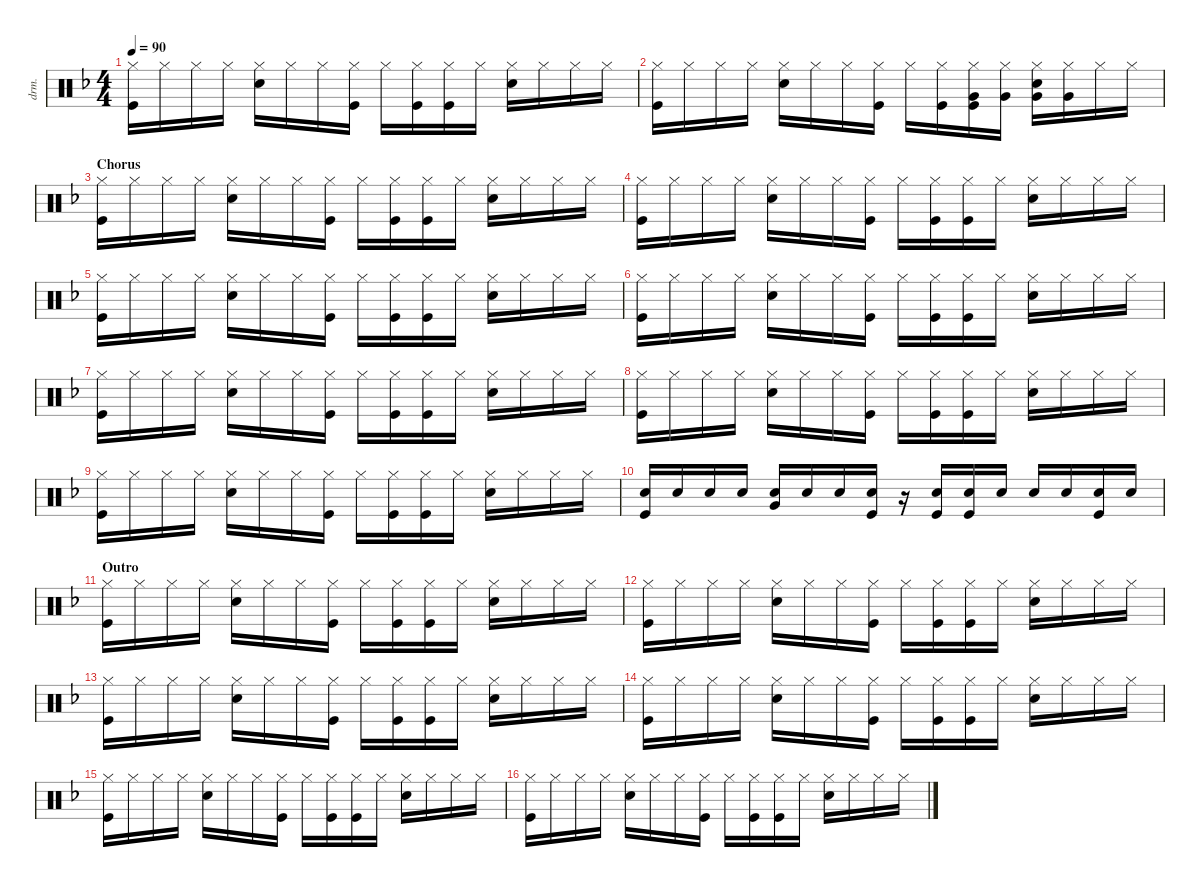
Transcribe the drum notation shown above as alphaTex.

\defaultSystemsLayout 4
\hideDynamics
\bracketExtendMode nobrackets
\track ("Drumkit" "drm.") {instrument percussion}
\staff {score}
\articulation defaults
\ts (4 4)
\tempo 90
\clef neutral
\ks f
("Hi-Hat (closed)"{acc forcenatural} "Kick (hit)"{acc forcenatural}).16{dy mf} "Hi-Hat (closed)"{acc forcenatural}.16 "Hi-Hat (closed)"{acc forcenatural}.16 "Hi-Hat (closed)"{acc forcenatural}.16 ("Hi-Hat (closed)"{acc forcenatural} "Snare (hit) 2"{acc forcenatural}).16 "Hi-Hat (closed)"{acc forcenatural}.16 "Hi-Hat (closed)"{acc forcenatural}.16 ("Hi-Hat (closed)"{acc forcenatural} "Kick (hit)"{acc forcenatural}).16 "Hi-Hat (closed)"{acc forcenatural}.16 ("Hi-Hat (closed)"{acc forcenatural} "Kick (hit)"{acc forcenatural}).16 ("Hi-Hat (closed)"{acc forcenatural} "Kick (hit)"{acc forcenatural}).16 "Hi-Hat (closed)"{acc forcenatural}.16 ("Hi-Hat (closed)"{acc forcenatural} "Snare (hit) 2"{acc forcenatural}).16 "Hi-Hat (closed)"{acc forcenatural}.16 "Hi-Hat (closed)"{acc forcenatural}.16 "Hi-Hat (closed)"{acc forcenatural}.16 |
("Hi-Hat (closed)"{acc forcenatural} "Kick (hit)"{acc forcenatural}).16 "Hi-Hat (closed)"{acc forcenatural}.16 "Hi-Hat (closed)"{acc forcenatural}.16 "Hi-Hat (closed)"{acc forcenatural}.16 ("Hi-Hat (closed)"{acc forcenatural} "Snare (hit) 2"{acc forcenatural}).16 "Hi-Hat (closed)"{acc forcenatural}.16 "Hi-Hat (closed)"{acc forcenatural}.16 ("Hi-Hat (closed)"{acc forcenatural} "Kick (hit)"{acc forcenatural}).16 "Hi-Hat (closed)"{acc forcenatural}.16 ("Hi-Hat (closed)"{acc forcenatural} "Kick (hit)"{acc forcenatural}).16 ("Hi-Hat (closed)"{acc forcenatural} "Kick (hit)"{acc forcenatural} "Very Low Tom (hit)"{acc forcenatural}).16 ("Hi-Hat (closed)"{acc forcenatural} "Very Low Tom (hit)"{acc forcenatural}).16 ("Hi-Hat (closed)"{acc forcenatural} "Snare (hit) 2"{acc forcenatural} "Very Low Tom (hit)"{acc forcenatural}).16 ("Hi-Hat (closed)"{acc forcenatural} "Very Low Tom (hit)"{acc forcenatural}).16 "Hi-Hat (closed)"{acc forcenatural}.16 "Hi-Hat (closed)"{acc forcenatural}.16 |
\section ("" "Chorus")
("Hi-Hat (closed)"{acc forcenatural} "Kick (hit)"{acc forcenatural}).16 "Hi-Hat (closed)"{acc forcenatural}.16 "Hi-Hat (closed)"{acc forcenatural}.16 "Hi-Hat (closed)"{acc forcenatural}.16 ("Hi-Hat (closed)"{acc forcenatural} "Snare (hit) 2"{acc forcenatural}).16 "Hi-Hat (closed)"{acc forcenatural}.16 "Hi-Hat (closed)"{acc forcenatural}.16 ("Hi-Hat (closed)"{acc forcenatural} "Kick (hit)"{acc forcenatural}).16 "Hi-Hat (closed)"{acc forcenatural}.16 ("Hi-Hat (closed)"{acc forcenatural} "Kick (hit)"{acc forcenatural}).16 ("Hi-Hat (closed)"{acc forcenatural} "Kick (hit)"{acc forcenatural}).16 "Hi-Hat (closed)"{acc forcenatural}.16 ("Hi-Hat (closed)"{acc forcenatural} "Snare (hit) 2"{acc forcenatural}).16 "Hi-Hat (closed)"{acc forcenatural}.16 "Hi-Hat (closed)"{acc forcenatural}.16 "Hi-Hat (closed)"{acc forcenatural}.16 |
("Hi-Hat (closed)"{acc forcenatural} "Kick (hit)"{acc forcenatural}).16 "Hi-Hat (closed)"{acc forcenatural}.16 "Hi-Hat (closed)"{acc forcenatural}.16 "Hi-Hat (closed)"{acc forcenatural}.16 ("Hi-Hat (closed)"{acc forcenatural} "Snare (hit) 2"{acc forcenatural}).16 "Hi-Hat (closed)"{acc forcenatural}.16 "Hi-Hat (closed)"{acc forcenatural}.16 ("Hi-Hat (closed)"{acc forcenatural} "Kick (hit)"{acc forcenatural}).16 "Hi-Hat (closed)"{acc forcenatural}.16 ("Hi-Hat (closed)"{acc forcenatural} "Kick (hit)"{acc forcenatural}).16 ("Hi-Hat (closed)"{acc forcenatural} "Kick (hit)"{acc forcenatural}).16 "Hi-Hat (closed)"{acc forcenatural}.16 ("Hi-Hat (closed)"{acc forcenatural} "Snare (hit) 2"{acc forcenatural}).16 "Hi-Hat (closed)"{acc forcenatural}.16 "Hi-Hat (closed)"{acc forcenatural}.16 "Hi-Hat (closed)"{acc forcenatural}.16 |
("Hi-Hat (closed)"{acc forcenatural} "Kick (hit)"{acc forcenatural}).16 "Hi-Hat (closed)"{acc forcenatural}.16 "Hi-Hat (closed)"{acc forcenatural}.16 "Hi-Hat (closed)"{acc forcenatural}.16 ("Hi-Hat (closed)"{acc forcenatural} "Snare (hit) 2"{acc forcenatural}).16 "Hi-Hat (closed)"{acc forcenatural}.16 "Hi-Hat (closed)"{acc forcenatural}.16 ("Hi-Hat (closed)"{acc forcenatural} "Kick (hit)"{acc forcenatural}).16 "Hi-Hat (closed)"{acc forcenatural}.16 ("Hi-Hat (closed)"{acc forcenatural} "Kick (hit)"{acc forcenatural}).16 ("Hi-Hat (closed)"{acc forcenatural} "Kick (hit)"{acc forcenatural}).16 "Hi-Hat (closed)"{acc forcenatural}.16 ("Hi-Hat (closed)"{acc forcenatural} "Snare (hit) 2"{acc forcenatural}).16 "Hi-Hat (closed)"{acc forcenatural}.16 "Hi-Hat (closed)"{acc forcenatural}.16 "Hi-Hat (closed)"{acc forcenatural}.16 |
("Hi-Hat (closed)"{acc forcenatural} "Kick (hit)"{acc forcenatural}).16 "Hi-Hat (closed)"{acc forcenatural}.16 "Hi-Hat (closed)"{acc forcenatural}.16 "Hi-Hat (closed)"{acc forcenatural}.16 ("Hi-Hat (closed)"{acc forcenatural} "Snare (hit) 2"{acc forcenatural}).16 "Hi-Hat (closed)"{acc forcenatural}.16 "Hi-Hat (closed)"{acc forcenatural}.16 ("Hi-Hat (closed)"{acc forcenatural} "Kick (hit)"{acc forcenatural}).16 "Hi-Hat (closed)"{acc forcenatural}.16 ("Hi-Hat (closed)"{acc forcenatural} "Kick (hit)"{acc forcenatural}).16 ("Hi-Hat (closed)"{acc forcenatural} "Kick (hit)"{acc forcenatural}).16 "Hi-Hat (closed)"{acc forcenatural}.16 ("Hi-Hat (closed)"{acc forcenatural} "Snare (hit) 2"{acc forcenatural}).16 "Hi-Hat (closed)"{acc forcenatural}.16 "Hi-Hat (closed)"{acc forcenatural}.16 "Hi-Hat (closed)"{acc forcenatural}.16 |
("Hi-Hat (closed)"{acc forcenatural} "Kick (hit)"{acc forcenatural}).16 "Hi-Hat (closed)"{acc forcenatural}.16 "Hi-Hat (closed)"{acc forcenatural}.16 "Hi-Hat (closed)"{acc forcenatural}.16 ("Hi-Hat (closed)"{acc forcenatural} "Snare (hit) 2"{acc forcenatural}).16 "Hi-Hat (closed)"{acc forcenatural}.16 "Hi-Hat (closed)"{acc forcenatural}.16 ("Hi-Hat (closed)"{acc forcenatural} "Kick (hit)"{acc forcenatural}).16 "Hi-Hat (closed)"{acc forcenatural}.16 ("Hi-Hat (closed)"{acc forcenatural} "Kick (hit)"{acc forcenatural}).16 ("Hi-Hat (closed)"{acc forcenatural} "Kick (hit)"{acc forcenatural}).16 "Hi-Hat (closed)"{acc forcenatural}.16 ("Hi-Hat (closed)"{acc forcenatural} "Snare (hit) 2"{acc forcenatural}).16 "Hi-Hat (closed)"{acc forcenatural}.16 "Hi-Hat (closed)"{acc forcenatural}.16 "Hi-Hat (closed)"{acc forcenatural}.16 |
("Hi-Hat (closed)"{acc forcenatural} "Kick (hit)"{acc forcenatural}).16 "Hi-Hat (closed)"{acc forcenatural}.16 "Hi-Hat (closed)"{acc forcenatural}.16 "Hi-Hat (closed)"{acc forcenatural}.16 ("Hi-Hat (closed)"{acc forcenatural} "Snare (hit) 2"{acc forcenatural}).16 "Hi-Hat (closed)"{acc forcenatural}.16 "Hi-Hat (closed)"{acc forcenatural}.16 ("Hi-Hat (closed)"{acc forcenatural} "Kick (hit)"{acc forcenatural}).16 "Hi-Hat (closed)"{acc forcenatural}.16 ("Hi-Hat (closed)"{acc forcenatural} "Kick (hit)"{acc forcenatural}).16 ("Hi-Hat (closed)"{acc forcenatural} "Kick (hit)"{acc forcenatural}).16 "Hi-Hat (closed)"{acc forcenatural}.16 ("Hi-Hat (closed)"{acc forcenatural} "Snare (hit) 2"{acc forcenatural}).16 "Hi-Hat (closed)"{acc forcenatural}.16 "Hi-Hat (closed)"{acc forcenatural}.16 "Hi-Hat (closed)"{acc forcenatural}.16 |
("Hi-Hat (closed)"{acc forcenatural} "Kick (hit)"{acc forcenatural}).16 "Hi-Hat (closed)"{acc forcenatural}.16 "Hi-Hat (closed)"{acc forcenatural}.16 "Hi-Hat (closed)"{acc forcenatural}.16 ("Hi-Hat (closed)"{acc forcenatural} "Snare (hit) 2"{acc forcenatural}).16 "Hi-Hat (closed)"{acc forcenatural}.16 "Hi-Hat (closed)"{acc forcenatural}.16 ("Hi-Hat (closed)"{acc forcenatural} "Kick (hit)"{acc forcenatural}).16 "Hi-Hat (closed)"{acc forcenatural}.16 ("Hi-Hat (closed)"{acc forcenatural} "Kick (hit)"{acc forcenatural}).16 ("Hi-Hat (closed)"{acc forcenatural} "Kick (hit)"{acc forcenatural}).16 "Hi-Hat (closed)"{acc forcenatural}.16 ("Hi-Hat (closed)"{acc forcenatural} "Snare (hit) 2"{acc forcenatural}).16 "Hi-Hat (closed)"{acc forcenatural}.16 "Hi-Hat (closed)"{acc forcenatural}.16 "Hi-Hat (closed)"{acc forcenatural}.16 |
("Kick (hit)"{acc forcenatural} "Snare (hit) 2"{acc forcenatural}).16 "Snare (hit) 2"{acc forcenatural}.16 "Snare (hit) 2"{acc forcenatural}.16 "Snare (hit) 2"{acc forcenatural}.16 ("Snare (hit) 2"{acc forcenatural} "Very Low Tom (hit)"{acc forcenatural}).16 "Snare (hit) 2"{acc forcenatural}.16 "Snare (hit) 2"{acc forcenatural}.16 ("Snare (hit) 2"{acc forcenatural} "Kick (hit)"{acc forcenatural}).16 r.16 ("Kick (hit)"{acc forcenatural} "Snare (hit) 2"{acc forcenatural}).16 ("Snare (hit) 2"{acc forcenatural} "Kick (hit)"{acc forcenatural}).16 "Snare (hit) 2"{acc forcenatural}.16 "Snare (hit) 2"{acc forcenatural}.16 "Snare (hit) 2"{acc forcenatural}.16 ("Snare (hit) 2"{acc forcenatural} "Kick (hit)"{acc forcenatural}).16 "Snare (hit) 2"{acc forcenatural}.16 |
\section ("" "Outro")
("Hi-Hat (closed)"{acc forcenatural} "Kick (hit)"{acc forcenatural}).16 "Hi-Hat (closed)"{acc forcenatural}.16 "Hi-Hat (closed)"{acc forcenatural}.16 "Hi-Hat (closed)"{acc forcenatural}.16 ("Hi-Hat (closed)"{acc forcenatural} "Snare (hit) 2"{acc forcenatural}).16 "Hi-Hat (closed)"{acc forcenatural}.16 "Hi-Hat (closed)"{acc forcenatural}.16 ("Hi-Hat (closed)"{acc forcenatural} "Kick (hit)"{acc forcenatural}).16 "Hi-Hat (closed)"{acc forcenatural}.16 ("Hi-Hat (closed)"{acc forcenatural} "Kick (hit)"{acc forcenatural}).16 ("Hi-Hat (closed)"{acc forcenatural} "Kick (hit)"{acc forcenatural}).16 "Hi-Hat (closed)"{acc forcenatural}.16 ("Hi-Hat (closed)"{acc forcenatural} "Snare (hit) 2"{acc forcenatural}).16 "Hi-Hat (closed)"{acc forcenatural}.16 "Hi-Hat (closed)"{acc forcenatural}.16 "Hi-Hat (closed)"{acc forcenatural}.16 |
("Hi-Hat (closed)"{acc forcenatural} "Kick (hit)"{acc forcenatural}).16 "Hi-Hat (closed)"{acc forcenatural}.16 "Hi-Hat (closed)"{acc forcenatural}.16 "Hi-Hat (closed)"{acc forcenatural}.16 ("Hi-Hat (closed)"{acc forcenatural} "Snare (hit) 2"{acc forcenatural}).16 "Hi-Hat (closed)"{acc forcenatural}.16 "Hi-Hat (closed)"{acc forcenatural}.16 ("Hi-Hat (closed)"{acc forcenatural} "Kick (hit)"{acc forcenatural}).16 "Hi-Hat (closed)"{acc forcenatural}.16 ("Hi-Hat (closed)"{acc forcenatural} "Kick (hit)"{acc forcenatural}).16 ("Hi-Hat (closed)"{acc forcenatural} "Kick (hit)"{acc forcenatural}).16 "Hi-Hat (closed)"{acc forcenatural}.16 ("Hi-Hat (closed)"{acc forcenatural} "Snare (hit) 2"{acc forcenatural}).16 "Hi-Hat (closed)"{acc forcenatural}.16 "Hi-Hat (closed)"{acc forcenatural}.16 "Hi-Hat (closed)"{acc forcenatural}.16 |
("Hi-Hat (closed)"{acc forcenatural} "Kick (hit)"{acc forcenatural}).16 "Hi-Hat (closed)"{acc forcenatural}.16 "Hi-Hat (closed)"{acc forcenatural}.16 "Hi-Hat (closed)"{acc forcenatural}.16 ("Hi-Hat (closed)"{acc forcenatural} "Snare (hit) 2"{acc forcenatural}).16 "Hi-Hat (closed)"{acc forcenatural}.16 "Hi-Hat (closed)"{acc forcenatural}.16 ("Hi-Hat (closed)"{acc forcenatural} "Kick (hit)"{acc forcenatural}).16 "Hi-Hat (closed)"{acc forcenatural}.16 ("Hi-Hat (closed)"{acc forcenatural} "Kick (hit)"{acc forcenatural}).16 ("Hi-Hat (closed)"{acc forcenatural} "Kick (hit)"{acc forcenatural}).16 "Hi-Hat (closed)"{acc forcenatural}.16 ("Hi-Hat (closed)"{acc forcenatural} "Snare (hit) 2"{acc forcenatural}).16 "Hi-Hat (closed)"{acc forcenatural}.16 "Hi-Hat (closed)"{acc forcenatural}.16 "Hi-Hat (closed)"{acc forcenatural}.16 |
("Hi-Hat (closed)"{acc forcenatural} "Kick (hit)"{acc forcenatural}).16 "Hi-Hat (closed)"{acc forcenatural}.16 "Hi-Hat (closed)"{acc forcenatural}.16 "Hi-Hat (closed)"{acc forcenatural}.16 ("Hi-Hat (closed)"{acc forcenatural} "Snare (hit) 2"{acc forcenatural}).16 "Hi-Hat (closed)"{acc forcenatural}.16 "Hi-Hat (closed)"{acc forcenatural}.16 ("Hi-Hat (closed)"{acc forcenatural} "Kick (hit)"{acc forcenatural}).16 "Hi-Hat (closed)"{acc forcenatural}.16 ("Hi-Hat (closed)"{acc forcenatural} "Kick (hit)"{acc forcenatural}).16 ("Hi-Hat (closed)"{acc forcenatural} "Kick (hit)"{acc forcenatural}).16 "Hi-Hat (closed)"{acc forcenatural}.16 ("Hi-Hat (closed)"{acc forcenatural} "Snare (hit) 2"{acc forcenatural}).16 "Hi-Hat (closed)"{acc forcenatural}.16 "Hi-Hat (closed)"{acc forcenatural}.16 "Hi-Hat (closed)"{acc forcenatural}.16 |
("Hi-Hat (closed)"{acc forcenatural} "Kick (hit)"{acc forcenatural}).16 "Hi-Hat (closed)"{acc forcenatural}.16 "Hi-Hat (closed)"{acc forcenatural}.16 "Hi-Hat (closed)"{acc forcenatural}.16 ("Hi-Hat (closed)"{acc forcenatural} "Snare (hit) 2"{acc forcenatural}).16 "Hi-Hat (closed)"{acc forcenatural}.16 "Hi-Hat (closed)"{acc forcenatural}.16 ("Hi-Hat (closed)"{acc forcenatural} "Kick (hit)"{acc forcenatural}).16 "Hi-Hat (closed)"{acc forcenatural}.16 ("Hi-Hat (closed)"{acc forcenatural} "Kick (hit)"{acc forcenatural}).16 ("Hi-Hat (closed)"{acc forcenatural} "Kick (hit)"{acc forcenatural}).16 "Hi-Hat (closed)"{acc forcenatural}.16 ("Hi-Hat (closed)"{acc forcenatural} "Snare (hit) 2"{acc forcenatural}).16 "Hi-Hat (closed)"{acc forcenatural}.16 "Hi-Hat (closed)"{acc forcenatural}.16 "Hi-Hat (closed)"{acc forcenatural}.16 |
("Hi-Hat (closed)"{acc forcenatural} "Kick (hit)"{acc forcenatural}).16 "Hi-Hat (closed)"{acc forcenatural}.16 "Hi-Hat (closed)"{acc forcenatural}.16 "Hi-Hat (closed)"{acc forcenatural}.16 ("Hi-Hat (closed)"{acc forcenatural} "Snare (hit) 2"{acc forcenatural}).16 "Hi-Hat (closed)"{acc forcenatural}.16 "Hi-Hat (closed)"{acc forcenatural}.16 ("Hi-Hat (closed)"{acc forcenatural} "Kick (hit)"{acc forcenatural}).16 "Hi-Hat (closed)"{acc forcenatural}.16 ("Hi-Hat (closed)"{acc forcenatural} "Kick (hit)"{acc forcenatural}).16 ("Hi-Hat (closed)"{acc forcenatural} "Kick (hit)"{acc forcenatural}).16 "Hi-Hat (closed)"{acc forcenatural}.16 ("Hi-Hat (closed)"{acc forcenatural} "Snare (hit) 2"{acc forcenatural}).16 "Hi-Hat (closed)"{acc forcenatural}.16 "Hi-Hat (closed)"{acc forcenatural}.16 "Hi-Hat (closed)"{acc forcenatural}.16
